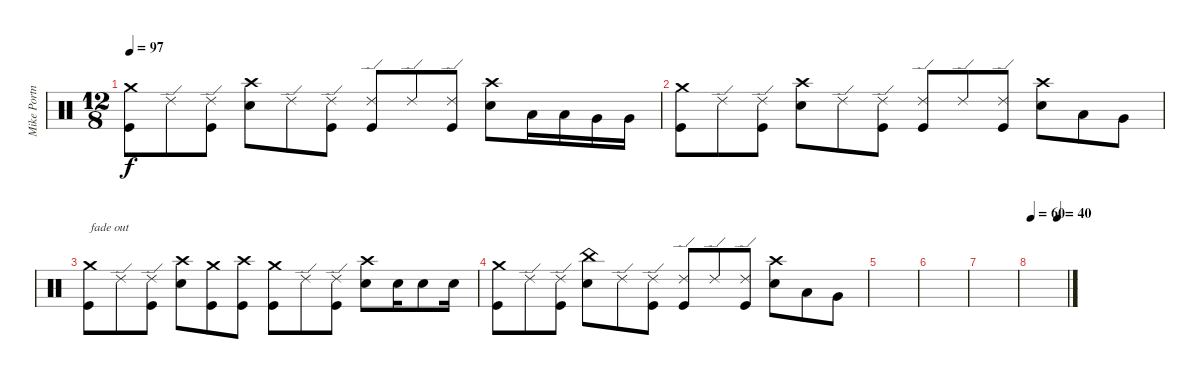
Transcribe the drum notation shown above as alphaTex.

\track ("Mike Portnoy" "Mike Portn") {instrument percussion}
\staff {score}
\articulation defaults
\ts (12 8)
\tempo 97
\clef neutral
\ks c
("Crash medium (hit)" "Kick (hit)").8{dy f} "Ride (edge) 2".8 ("Ride (edge) 2" "Kick (hit)").8 ("Crash high (hit)" "Snare (hit) 2").8 "Ride (edge) 2".8 ("Ride (edge) 2" "Kick (hit)").8 ("Ride (edge) 2" "Kick (hit)").8 "Ride (edge) 2".8 ("Ride (edge) 2" "Kick (hit)").8 ("Crash high (hit)" "Snare (hit) 2").8 "Low Tom (hit)".16 "Low Tom (hit)".16 "Very Low Tom (hit)".16 "Very Low Tom (hit)".16 |
("Crash medium (hit)" "Kick (hit)").8 "Ride (edge) 2".8 ("Ride (edge) 2" "Kick (hit)").8 ("Crash high (hit)" "Snare (hit) 2").8 "Ride (edge) 2".8 ("Ride (edge) 2" "Kick (hit)").8 ("Ride (edge) 2" "Kick (hit)").8 "Ride (edge) 2".8 ("Ride (edge) 2" "Kick (hit)").8 ("Crash high (hit)" "Snare (hit) 2").8 "Low Tom (hit)".8 "Very Low Tom (hit)".8 |
("Crash medium (hit)" "Kick (hit)").8{txt "fade out" volume 7} "Ride (edge) 2".8 ("Ride (edge) 2" "Kick (hit)").8 ("Crash high (hit)" "Snare (hit) 2").8 ("Crash medium (hit)" "Kick (hit)").8 ("Crash high (hit)" "Kick (hit)").8 ("Crash medium (hit)" "Kick (hit)").8 "Ride (edge) 2".8 ("Ride (edge) 2" "Kick (hit)").8 ("Crash high (hit)" "Snare (hit) 2").8 "Snare (hit) 2".16 "Snare (hit) 2".8 "Snare (hit) 2".16 |
("Crash medium (hit)" "Kick (hit)").8{volume 0} "Ride (edge) 2".8 ("Ride (edge) 2" "Kick (hit)").8 ("China (hit)" "Snare (hit) 2").8 "Ride (edge) 2".8 ("Ride (edge) 2" "Kick (hit)").8 ("Ride (edge) 2" "Kick (hit)").8 "Ride (edge) 2".8 ("Ride (edge) 2" "Kick (hit)").8 ("Crash high (hit)" "Snare (hit) 2").8 "Low Tom (hit)".8 "Very Low Tom (hit)".8 |
|
|
|
\tempo 60
\tempo (40 0.7395833333333334)
